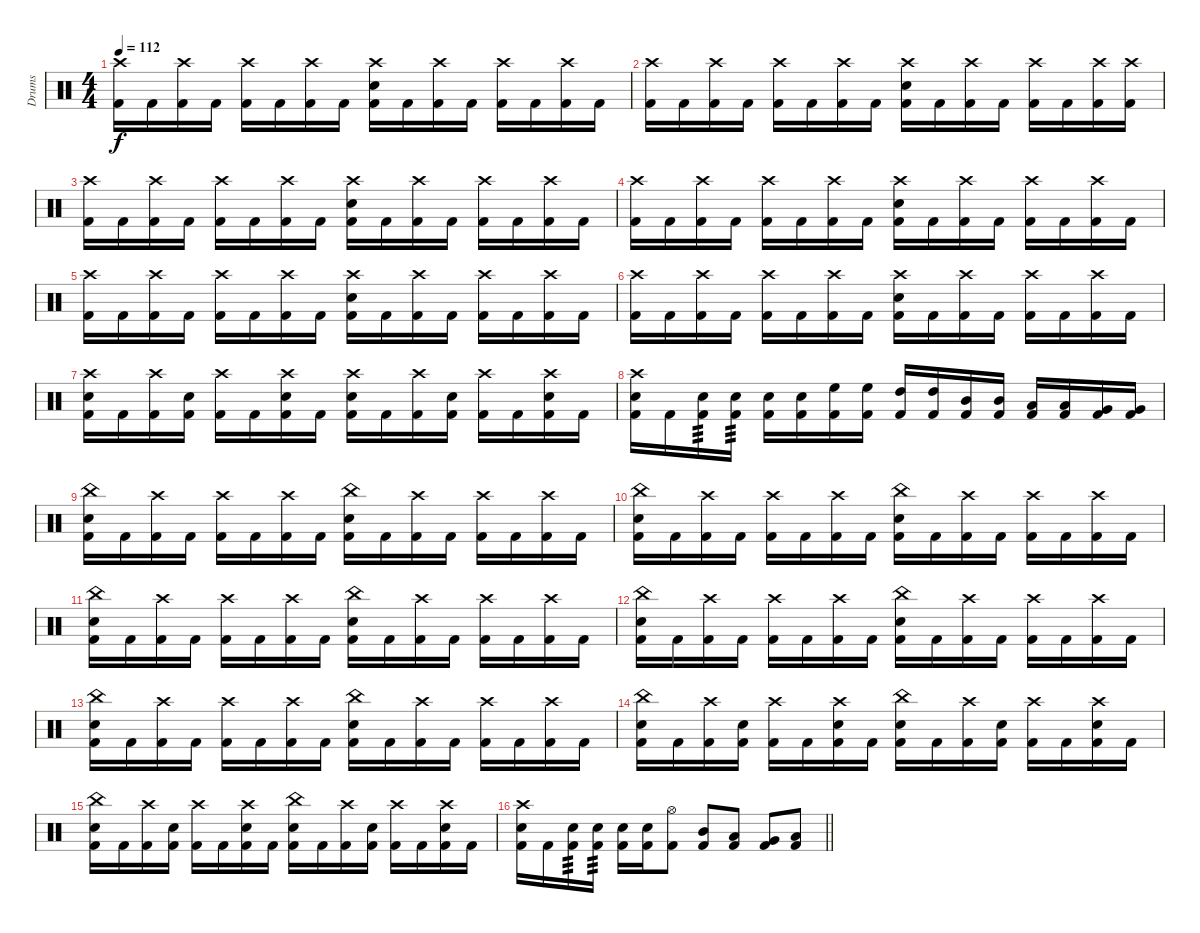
\track ("Drums" "Drums") {instrument percussion}
\staff {score}
\articulation defaults
\ts (4 4)
\tempo 112
\clef neutral
\ks c
("Crash high (hit)" "Kick (hit) 2").16{dy f} "Kick (hit) 2".16 ("Kick (hit) 2" "Crash high (hit)").16 "Kick (hit) 2".16 ("Crash high (hit)" "Kick (hit) 2").16 "Kick (hit) 2".16 ("Kick (hit) 2" "Crash high (hit)").16 "Kick (hit) 2".16 ("Crash high (hit)" "Kick (hit) 2" "Snare (hit) 2").16 "Kick (hit) 2".16 ("Kick (hit) 2" "Crash high (hit)").16 "Kick (hit) 2".16 ("Crash high (hit)" "Kick (hit) 2").16 "Kick (hit) 2".16 ("Kick (hit) 2" "Crash high (hit)").16 "Kick (hit) 2".16 |
("Crash high (hit)" "Kick (hit) 2").16 "Kick (hit) 2".16 ("Kick (hit) 2" "Crash high (hit)").16 "Kick (hit) 2".16 ("Crash high (hit)" "Kick (hit) 2").16 "Kick (hit) 2".16 ("Kick (hit) 2" "Crash high (hit)").16 "Kick (hit) 2".16 ("Crash high (hit)" "Kick (hit) 2" "Snare (hit) 2").16 "Kick (hit) 2".16 ("Kick (hit) 2" "Crash high (hit)").16 "Kick (hit) 2".16 ("Crash high (hit)" "Kick (hit) 2").16 "Kick (hit) 2".16 ("Kick (hit) 2" "Crash high (hit)").16 ("Crash high (hit)" "Kick (hit) 2").16 |
("Crash high (hit)" "Kick (hit) 2").16 "Kick (hit) 2".16 ("Kick (hit) 2" "Crash high (hit)").16 "Kick (hit) 2".16 ("Crash high (hit)" "Kick (hit) 2").16 "Kick (hit) 2".16 ("Kick (hit) 2" "Crash high (hit)").16 "Kick (hit) 2".16 ("Crash high (hit)" "Kick (hit) 2" "Snare (hit) 2").16 "Kick (hit) 2".16 ("Kick (hit) 2" "Crash high (hit)").16 "Kick (hit) 2".16 ("Crash high (hit)" "Kick (hit) 2").16 "Kick (hit) 2".16 ("Kick (hit) 2" "Crash high (hit)").16 "Kick (hit) 2".16 |
("Crash high (hit)" "Kick (hit) 2").16 "Kick (hit) 2".16 ("Kick (hit) 2" "Crash high (hit)").16 "Kick (hit) 2".16 ("Crash high (hit)" "Kick (hit) 2").16 "Kick (hit) 2".16 ("Kick (hit) 2" "Crash high (hit)").16 "Kick (hit) 2".16 ("Crash high (hit)" "Kick (hit) 2" "Snare (hit) 2").16 "Kick (hit) 2".16 ("Kick (hit) 2" "Crash high (hit)").16 "Kick (hit) 2".16 ("Crash high (hit)" "Kick (hit) 2").16 "Kick (hit) 2".16 ("Kick (hit) 2" "Crash high (hit)").16 "Kick (hit) 2".16 |
("Crash high (hit)" "Kick (hit) 2").16 "Kick (hit) 2".16 ("Kick (hit) 2" "Crash high (hit)").16 "Kick (hit) 2".16 ("Crash high (hit)" "Kick (hit) 2").16 "Kick (hit) 2".16 ("Kick (hit) 2" "Crash high (hit)").16 "Kick (hit) 2".16 ("Crash high (hit)" "Kick (hit) 2" "Snare (hit) 2").16 "Kick (hit) 2".16 ("Kick (hit) 2" "Crash high (hit)").16 "Kick (hit) 2".16 ("Crash high (hit)" "Kick (hit) 2").16 "Kick (hit) 2".16 ("Kick (hit) 2" "Crash high (hit)").16 "Kick (hit) 2".16 |
("Crash high (hit)" "Kick (hit) 2").16 "Kick (hit) 2".16 ("Kick (hit) 2" "Crash high (hit)").16 "Kick (hit) 2".16 ("Crash high (hit)" "Kick (hit) 2").16 "Kick (hit) 2".16 ("Kick (hit) 2" "Crash high (hit)").16 "Kick (hit) 2".16 ("Crash high (hit)" "Kick (hit) 2" "Snare (hit) 2").16 "Kick (hit) 2".16 ("Kick (hit) 2" "Crash high (hit)").16 "Kick (hit) 2".16 ("Crash high (hit)" "Kick (hit) 2").16 "Kick (hit) 2".16 ("Kick (hit) 2" "Crash high (hit)").16 "Kick (hit) 2".16 |
("Crash high (hit)" "Kick (hit) 2" "Snare (hit) 2").16 "Kick (hit) 2".16 ("Kick (hit) 2" "Crash high (hit)").16 ("Kick (hit) 2" "Snare (hit) 2").16 ("Crash high (hit)" "Kick (hit) 2").16 "Kick (hit) 2".16 ("Kick (hit) 2" "Crash high (hit)" "Snare (hit) 2").16 "Kick (hit) 2".16 ("Crash high (hit)" "Kick (hit) 2" "Snare (hit) 2").16 "Kick (hit) 2".16 ("Kick (hit) 2" "Crash high (hit)").16 ("Kick (hit) 2" "Snare (hit) 2").16 ("Crash high (hit)" "Kick (hit) 2").16 "Kick (hit) 2".16 ("Kick (hit) 2" "Crash high (hit)" "Snare (hit) 2").16 "Kick (hit) 2".16 |
("Crash high (hit)" "Kick (hit) 2" "Snare (hit) 2").16 "Kick (hit) 2".16 ("Kick (hit) 2" "Snare (hit) 2").16{tp 3} ("Kick (hit) 2" "Snare (hit) 2").16{tp 3} ("Snare (hit) 2" "Kick (hit) 2").16 ("Kick (hit) 2" "Snare (hit) 2").16 ("Kick (hit) 2" "High Floor Tom (hit)").16 ("Kick (hit) 2" "High Floor Tom (hit)").16 ("High Tom (hit)" "Kick (hit) 2").16 ("Kick (hit) 2" "High Tom (hit)").16 ("Kick (hit) 2" "Mid Tom (hit)").16 ("Kick (hit) 2" "Mid Tom (hit)").16 ("Low Tom (hit)" "Kick (hit) 2").16 ("Kick (hit) 2" "Low Tom (hit)").16 ("Kick (hit) 2" "Very Low Tom (hit)").16 ("Kick (hit) 2" "Very Low Tom (hit)").16 |
("China (hit)" "Kick (hit) 2" "Snare (hit) 2").16 "Kick (hit) 2".16 ("Kick (hit) 2" "Crash high (hit)").16 "Kick (hit) 2".16 ("Crash high (hit)" "Kick (hit) 2").16 "Kick (hit) 2".16 ("Kick (hit) 2" "Crash high (hit)").16 "Kick (hit) 2".16 ("China (hit)" "Kick (hit) 2" "Snare (hit) 2").16 "Kick (hit) 2".16 ("Kick (hit) 2" "Crash high (hit)").16 "Kick (hit) 2".16 ("Crash high (hit)" "Kick (hit) 2").16 "Kick (hit) 2".16 ("Kick (hit) 2" "Crash high (hit)").16 "Kick (hit) 2".16 |
("China (hit)" "Kick (hit) 2" "Snare (hit) 2").16 "Kick (hit) 2".16 ("Kick (hit) 2" "Crash high (hit)").16 "Kick (hit) 2".16 ("Crash high (hit)" "Kick (hit) 2").16 "Kick (hit) 2".16 ("Kick (hit) 2" "Crash high (hit)").16 "Kick (hit) 2".16 ("China (hit)" "Kick (hit) 2" "Snare (hit) 2").16 "Kick (hit) 2".16 ("Kick (hit) 2" "Crash high (hit)").16 "Kick (hit) 2".16 ("Crash high (hit)" "Kick (hit) 2").16 "Kick (hit) 2".16 ("Kick (hit) 2" "Crash high (hit)").16 "Kick (hit) 2".16 |
("China (hit)" "Kick (hit) 2" "Snare (hit) 2").16 "Kick (hit) 2".16 ("Kick (hit) 2" "Crash high (hit)").16 "Kick (hit) 2".16 ("Crash high (hit)" "Kick (hit) 2").16 "Kick (hit) 2".16 ("Kick (hit) 2" "Crash high (hit)").16 "Kick (hit) 2".16 ("China (hit)" "Kick (hit) 2" "Snare (hit) 2").16 "Kick (hit) 2".16 ("Kick (hit) 2" "Crash high (hit)").16 "Kick (hit) 2".16 ("Crash high (hit)" "Kick (hit) 2").16 "Kick (hit) 2".16 ("Kick (hit) 2" "Crash high (hit)").16 "Kick (hit) 2".16 |
("China (hit)" "Kick (hit) 2" "Snare (hit) 2").16 "Kick (hit) 2".16 ("Kick (hit) 2" "Crash high (hit)").16 "Kick (hit) 2".16 ("Crash high (hit)" "Kick (hit) 2").16 "Kick (hit) 2".16 ("Kick (hit) 2" "Crash high (hit)").16 "Kick (hit) 2".16 ("China (hit)" "Kick (hit) 2" "Snare (hit) 2").16 "Kick (hit) 2".16 ("Kick (hit) 2" "Crash high (hit)").16 "Kick (hit) 2".16 ("Crash high (hit)" "Kick (hit) 2").16 "Kick (hit) 2".16 ("Kick (hit) 2" "Crash high (hit)").16 "Kick (hit) 2".16 |
("China (hit)" "Kick (hit) 2" "Snare (hit) 2").16 "Kick (hit) 2".16 ("Kick (hit) 2" "Crash high (hit)").16 "Kick (hit) 2".16 ("Crash high (hit)" "Kick (hit) 2").16 "Kick (hit) 2".16 ("Kick (hit) 2" "Crash high (hit)").16 "Kick (hit) 2".16 ("China (hit)" "Kick (hit) 2" "Snare (hit) 2").16 "Kick (hit) 2".16 ("Kick (hit) 2" "Crash high (hit)").16 "Kick (hit) 2".16 ("Crash high (hit)" "Kick (hit) 2").16 "Kick (hit) 2".16 ("Kick (hit) 2" "Crash high (hit)").16 "Kick (hit) 2".16 |
("China (hit)" "Kick (hit) 2" "Snare (hit) 2").16 "Kick (hit) 2".16 ("Kick (hit) 2" "Crash high (hit)").16 ("Kick (hit) 2" "Snare (hit) 2").16 ("Crash high (hit)" "Kick (hit) 2").16 "Kick (hit) 2".16 ("Kick (hit) 2" "Crash high (hit)" "Snare (hit) 2").16 "Kick (hit) 2".16 ("China (hit)" "Kick (hit) 2" "Snare (hit) 2").16 "Kick (hit) 2".16 ("Kick (hit) 2" "Crash high (hit)").16 ("Kick (hit) 2" "Snare (hit) 2").16 ("Crash high (hit)" "Kick (hit) 2").16 "Kick (hit) 2".16 ("Kick (hit) 2" "Crash high (hit)" "Snare (hit) 2").16 "Kick (hit) 2".16 |
("China (hit)" "Kick (hit) 2" "Snare (hit) 2").16 "Kick (hit) 2".16 ("Kick (hit) 2" "Crash high (hit)").16 ("Kick (hit) 2" "Snare (hit) 2").16 ("Crash high (hit)" "Kick (hit) 2").16 "Kick (hit) 2".16 ("Kick (hit) 2" "Crash high (hit)" "Snare (hit) 2").16 "Kick (hit) 2".16 ("China (hit)" "Kick (hit) 2" "Snare (hit) 2").16 "Kick (hit) 2".16 ("Kick (hit) 2" "Crash high (hit)").16 ("Kick (hit) 2" "Snare (hit) 2").16 ("Crash high (hit)" "Kick (hit) 2").16 "Kick (hit) 2".16 ("Kick (hit) 2" "Crash high (hit)" "Snare (hit) 2").16 "Kick (hit) 2".16 |
\barLineRight lightlight
("Crash high (hit)" "Kick (hit) 2" "Snare (hit) 2").16 "Kick (hit) 2".16 ("Kick (hit) 2" "Snare (hit) 2").16{tp 3} ("Kick (hit) 2" "Snare (hit) 2").16{tp 3} ("Snare (hit) 2" "Kick (hit) 2").16 ("Kick (hit) 2" "Snare (hit) 2").16 ("Kick (hit) 2" "Hi-Hat (open)").8 ("Mid Tom (hit)" "Kick (hit) 2").8 ("Low Tom (hit)" "Kick (hit) 2").8 ("Very Low Tom (hit)" "Kick (hit) 2").8 ("Low Floor Tom (hit)" "Kick (hit) 2").8
